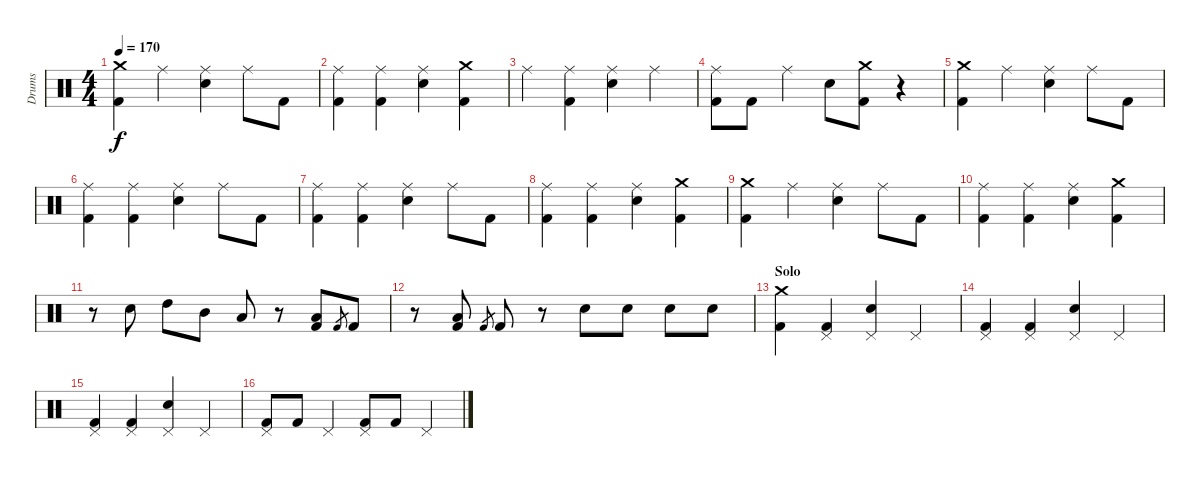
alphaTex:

\track ("Drums" "Drums") {instrument percussion}
\staff {score}
\articulation defaults
\ts (4 4)
\tempo 170
\clef neutral
\ks c
("Crash medium (hit)" "Kick (hit) 2").4{dy f} "Ride (middle)".4 ("Ride (middle)" "Electric Snare (hit)").4 "Ride (middle)".8 "Kick (hit) 2".8 |
("Ride (middle)" "Kick (hit) 2").4 ("Ride (middle)" "Kick (hit) 2").4 ("Ride (middle)" "Electric Snare (hit)").4 ("Crash medium (hit)" "Kick (hit) 2").4 |
"Ride (middle)".4 ("Ride (middle)" "Kick (hit) 2").4 ("Ride (middle)" "Electric Snare (hit)").4 "Ride (middle)".4 |
("Ride (middle)" "Kick (hit) 2").8 "Kick (hit) 2".8 "Ride (middle)".4 "Electric Snare (hit)".8 ("Crash medium (hit)" "Kick (hit) 2").8 r.4 |
("Crash medium (hit)" "Kick (hit) 2").4 "Ride (middle)".4 ("Ride (middle)" "Electric Snare (hit)").4 "Ride (middle)".8 "Kick (hit) 2".8 |
("Ride (middle)" "Kick (hit) 2").4 ("Ride (middle)" "Kick (hit) 2").4 ("Ride (middle)" "Electric Snare (hit)").4 "Ride (middle)".8 "Kick (hit) 2".8 |
("Ride (middle)" "Kick (hit) 2").4 ("Ride (middle)" "Kick (hit) 2").4 ("Ride (middle)" "Electric Snare (hit)").4 "Ride (middle)".8 "Kick (hit) 2".8 |
("Ride (middle)" "Kick (hit) 2").4 ("Ride (middle)" "Kick (hit) 2").4 ("Ride (middle)" "Electric Snare (hit)").4 ("Crash medium (hit)" "Kick (hit) 2").4 |
("Crash medium (hit)" "Kick (hit) 2").4 "Ride (middle)".4 ("Ride (middle)" "Electric Snare (hit)").4 "Ride (middle)".8 "Kick (hit) 2".8 |
("Ride (middle)" "Kick (hit) 2").4 ("Ride (middle)" "Kick (hit) 2").4 ("Ride (middle)" "Electric Snare (hit)").4 ("Crash medium (hit)" "Kick (hit) 2").4 |
r.8 "Electric Snare (hit)".8 "High Tom (hit)".8 "Mid Tom (hit)".8 "Low Tom (hit)".8 r.8 ("Low Tom (hit)" "Kick (hit) 2").8 "Kick (hit) 2".8{gr} "Kick (hit) 2".8 |
r.8 ("Low Tom (hit)" "Kick (hit) 2").8 "Kick (hit) 2".8{gr} "Kick (hit) 2".8 r.8 "Electric Snare (hit)".8 "Electric Snare (hit)".8 "Electric Snare (hit)".8 "Electric Snare (hit)".8 |
\section ("" "Solo")
("Crash medium (hit)" "Kick (hit) 2").4 ("Pedal Hi-Hat (hit)" "Kick (hit) 2").4 ("Pedal Hi-Hat (hit)" "Electric Snare (hit)").4 "Pedal Hi-Hat (hit)".4 |
("Pedal Hi-Hat (hit)" "Kick (hit) 2").4 ("Pedal Hi-Hat (hit)" "Kick (hit) 2").4 ("Pedal Hi-Hat (hit)" "Electric Snare (hit)").4 "Pedal Hi-Hat (hit)".4 |
("Pedal Hi-Hat (hit)" "Kick (hit) 2").4 ("Pedal Hi-Hat (hit)" "Kick (hit) 2").4 ("Pedal Hi-Hat (hit)" "Electric Snare (hit)").4 "Pedal Hi-Hat (hit)".4 |
("Pedal Hi-Hat (hit)" "Kick (hit) 2").8 "Kick (hit) 2".8 "Pedal Hi-Hat (hit)".4 ("Pedal Hi-Hat (hit)" "Kick (hit) 2").8 "Kick (hit) 2".8 "Pedal Hi-Hat (hit)".4
